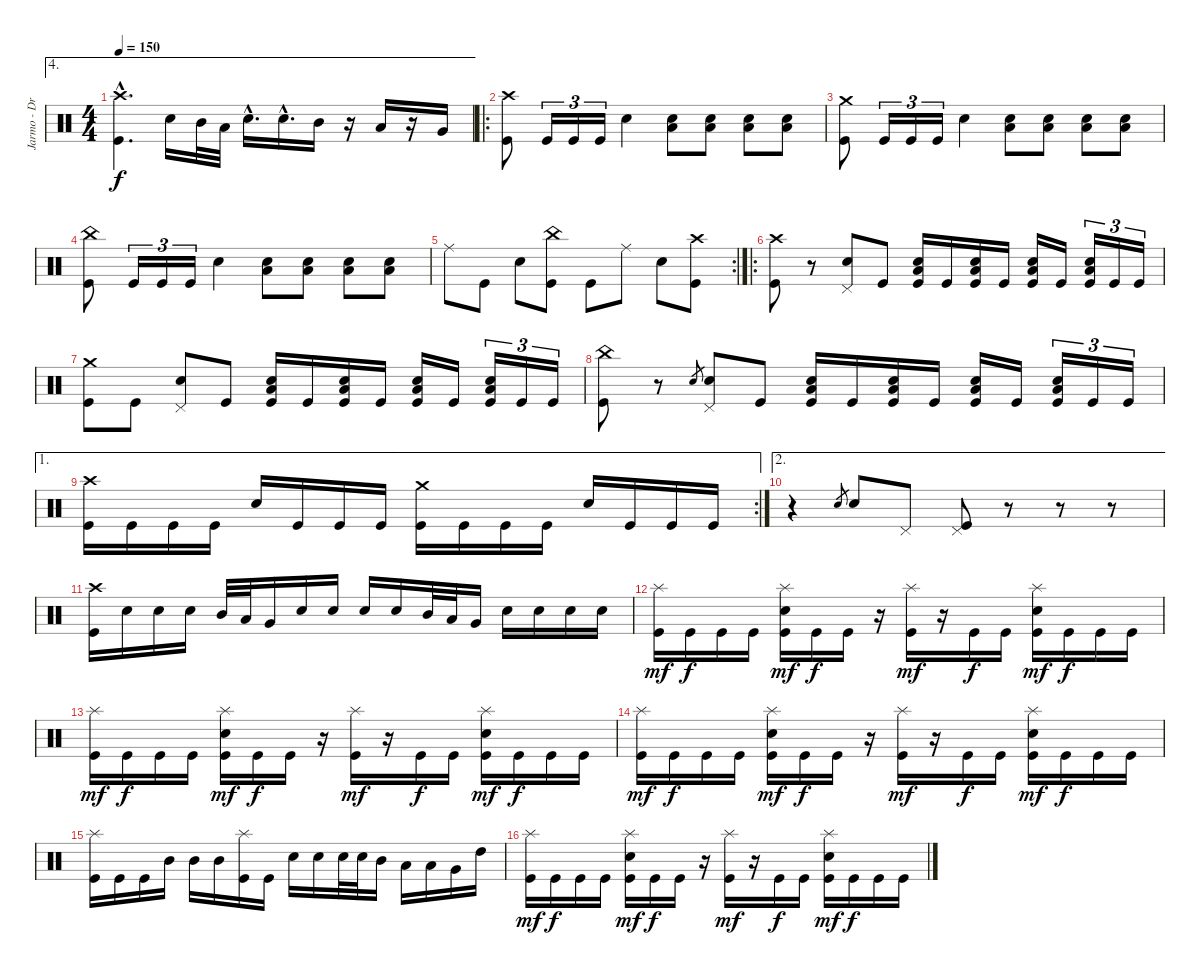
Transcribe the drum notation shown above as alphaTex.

\track ("Jarmo - Drums/Vodka" "Jarmo - Dr") {instrument percussion}
\staff {score}
\articulation defaults
\ae 4
\ts (4 4)
\tempo 150
\clef neutral
\ks c
("Kick (hit)"{hac} "Crash high (hit)"{hac}).4{d dy f} "Electric Snare (hit)".16 "Mid Tom (hit)".32 "Low Tom (hit)".32 "Electric Snare (hit)"{hac}.16{d} "Electric Snare (hit)"{hac}.16{d} "Mid Tom (hit)".16 r.16 "Low Tom (hit)".16 r.16 "Very Low Tom (hit)".16 |
\ro
("Kick (hit)" "Crash high (hit)").8 "Kick (hit)".16{tu (3 2)} "Kick (hit)".16{tu (3 2)} "Kick (hit)".16{tu (3 2)} "Electric Snare (hit)".4 ("Electric Snare (hit)" "Low Tom (hit)").8 ("Electric Snare (hit)" "Low Tom (hit)").8 ("Electric Snare (hit)" "Low Tom (hit)").8 ("Electric Snare (hit)" "Low Tom (hit)").8 |
("Kick (hit)" "Crash medium (hit)").8 "Kick (hit)".16{tu (3 2)} "Kick (hit)".16{tu (3 2)} "Kick (hit)".16{tu (3 2)} "Electric Snare (hit)".4 ("Electric Snare (hit)" "Low Tom (hit)").8 ("Electric Snare (hit)" "Low Tom (hit)").8 ("Electric Snare (hit)" "Low Tom (hit)").8 ("Electric Snare (hit)" "Low Tom (hit)").8 |
("Kick (hit)" "China (hit)").8 "Kick (hit)".16{tu (3 2)} "Kick (hit)".16{tu (3 2)} "Kick (hit)".16{tu (3 2)} "Electric Snare (hit)".4 ("Electric Snare (hit)" "Low Tom (hit)").8 ("Electric Snare (hit)" "Low Tom (hit)").8 ("Electric Snare (hit)" "Low Tom (hit)").8 ("Electric Snare (hit)" "Low Tom (hit)").8 |
\rc 2 "Ride (middle)".8 "Kick (hit)".8 "Electric Snare (hit)".8
("Kick (hit)" "China (hit)").8 "Kick (hit)".8 "Ride (middle)".8 "Electric Snare (hit)".8 ("Kick (hit)" "Crash high (hit)").8 |
\ro
("Kick (hit)" "Crash high (hit)").8 r.8 ("Electric Snare (hit)" "Pedal Hi-Hat (hit)").8 "Kick (hit)".8 ("Kick (hit)" "Electric Snare (hit)" "Low Tom (hit)").16 "Kick (hit)".16 ("Kick (hit)" "Electric Snare (hit)" "Low Tom (hit)").16 "Kick (hit)".16 ("Kick (hit)" "Electric Snare (hit)" "Low Tom (hit)").16 "Kick (hit)".16 ("Kick (hit)" "Electric Snare (hit)" "Low Tom (hit)").16{tu (3 2)} "Kick (hit)".16{tu (3 2)} "Kick (hit)".16{tu (3 2)} |
("Kick (hit)" "Crash medium (hit)").8 "Kick (hit)".8 ("Electric Snare (hit)" "Pedal Hi-Hat (hit)").8 "Kick (hit)".8 ("Kick (hit)" "Electric Snare (hit)" "Low Tom (hit)").16 "Kick (hit)".16 ("Kick (hit)" "Electric Snare (hit)" "Low Tom (hit)").16 "Kick (hit)".16 ("Kick (hit)" "Electric Snare (hit)" "Low Tom (hit)").16 "Kick (hit)".16 ("Kick (hit)" "Electric Snare (hit)" "Low Tom (hit)").16{tu (3 2)} "Kick (hit)".16{tu (3 2)} "Kick (hit)".16{tu (3 2)} |
("Kick (hit)" "China (hit)").8 r.8 "Snare (hit) 2".8{gr} ("Electric Snare (hit)" "Pedal Hi-Hat (hit)").8 "Kick (hit)".8 ("Kick (hit)" "Electric Snare (hit)" "Low Tom (hit)").16 "Kick (hit)".16 ("Kick (hit)" "Electric Snare (hit)" "Low Tom (hit)").16 "Kick (hit)".16 ("Kick (hit)" "Electric Snare (hit)" "Low Tom (hit)").16 "Kick (hit)".16 ("Kick (hit)" "Electric Snare (hit)" "Low Tom (hit)").16{tu (3 2)} "Kick (hit)".16{tu (3 2)} "Kick (hit)".16{tu (3 2)} |
\ae 1
\rc 2
("Kick (hit)" "Crash high (hit)").16 "Kick (hit)".16 "Kick (hit)".16 "Kick (hit)".16 "Electric Snare (hit)".16 "Kick (hit)".16 "Kick (hit)".16 "Kick (hit)".16 ("Kick (hit)" "Crash medium (hit)").16 "Kick (hit)".16 "Kick (hit)".16 "Kick (hit)".16 "Electric Snare (hit)".16 "Kick (hit)".16 "Kick (hit)".16 "Kick (hit)".16 |
\ae 2
r.4 "Snare (hit) 2".8{gr} "Electric Snare (hit)".8 "Pedal Hi-Hat (hit)".8 ("Kick (hit)" "Pedal Hi-Hat (hit)").8 r.8 r.8 r.8 |
("Kick (hit)" "Crash high (hit)").16 "Electric Snare (hit)".16 "Electric Snare (hit)".16 "Electric Snare (hit)".16 "Mid Tom (hit)".32 "Low Tom (hit)".32 "Very Low Tom (hit)".16 "Electric Snare (hit)".16 "Electric Snare (hit)".16 "Electric Snare (hit)".16 "Electric Snare (hit)".16 "Mid Tom (hit)".32 "Low Tom (hit)".32 "Very Low Tom (hit)".16 "Electric Snare (hit)".16 "Electric Snare (hit)".16 "Electric Snare (hit)".16 "Electric Snare (hit)".16 |
("Kick (hit)" "Splash (hit)").16{dy mf} "Kick (hit)".16{dy f} "Kick (hit)".16 "Kick (hit)".16 ("Kick (hit)" "Electric Snare (hit)" "Splash (hit)").16{dy mf} "Kick (hit)".16{dy f} "Kick (hit)".16 r.16 ("Kick (hit)" "Splash (hit)").16{dy mf} r.16 "Kick (hit)".16{dy f} "Kick (hit)".16 ("Kick (hit)" "Electric Snare (hit)" "Splash (hit)").16{dy mf} "Kick (hit)".16{dy f} "Kick (hit)".16 "Kick (hit)".16 |
("Kick (hit)" "Splash (hit)").16{dy mf} "Kick (hit)".16{dy f} "Kick (hit)".16 "Kick (hit)".16 ("Kick (hit)" "Electric Snare (hit)" "Splash (hit)").16{dy mf} "Kick (hit)".16{dy f} "Kick (hit)".16 r.16 ("Kick (hit)" "Splash (hit)").16{dy mf} r.16 "Kick (hit)".16{dy f} "Kick (hit)".16 ("Kick (hit)" "Electric Snare (hit)" "Splash (hit)").16{dy mf} "Kick (hit)".16{dy f} "Kick (hit)".16 "Kick (hit)".16 |
("Kick (hit)" "Splash (hit)").16{dy mf} "Kick (hit)".16{dy f} "Kick (hit)".16 "Kick (hit)".16 ("Kick (hit)" "Electric Snare (hit)" "Splash (hit)").16{dy mf} "Kick (hit)".16{dy f} "Kick (hit)".16 r.16 ("Kick (hit)" "Splash (hit)").16{dy mf} r.16 "Kick (hit)".16{dy f} "Kick (hit)".16 ("Kick (hit)" "Electric Snare (hit)" "Splash (hit)").16{dy mf} "Kick (hit)".16{dy f} "Kick (hit)".16 "Kick (hit)".16 |
("Kick (hit)" "Splash (hit)").16 "Kick (hit)".16 "Kick (hit)".16 "Mid Tom (hit)".16 "Mid Tom (hit)".16 "Mid Tom (hit)".16 ("Kick (hit)" "Splash (hit)").16 "Kick (hit)".16 "Electric Snare (hit)".16 "Electric Snare (hit)".16 "Electric Snare (hit)".32 "Electric Snare (hit)".32 "Mid Tom (hit)".16 "Low Tom (hit)".16 "Low Tom (hit)".16 "Very Low Tom (hit)".16 "High Tom (hit)".16 |
("Kick (hit)" "Splash (hit)").16{dy mf} "Kick (hit)".16{dy f} "Kick (hit)".16 "Kick (hit)".16 ("Kick (hit)" "Electric Snare (hit)" "Splash (hit)").16{dy mf} "Kick (hit)".16{dy f} "Kick (hit)".16 r.16 ("Kick (hit)" "Splash (hit)").16{dy mf} r.16 "Kick (hit)".16{dy f} "Kick (hit)".16 ("Kick (hit)" "Electric Snare (hit)" "Splash (hit)").16{dy mf} "Kick (hit)".16{dy f} "Kick (hit)".16 "Kick (hit)".16
